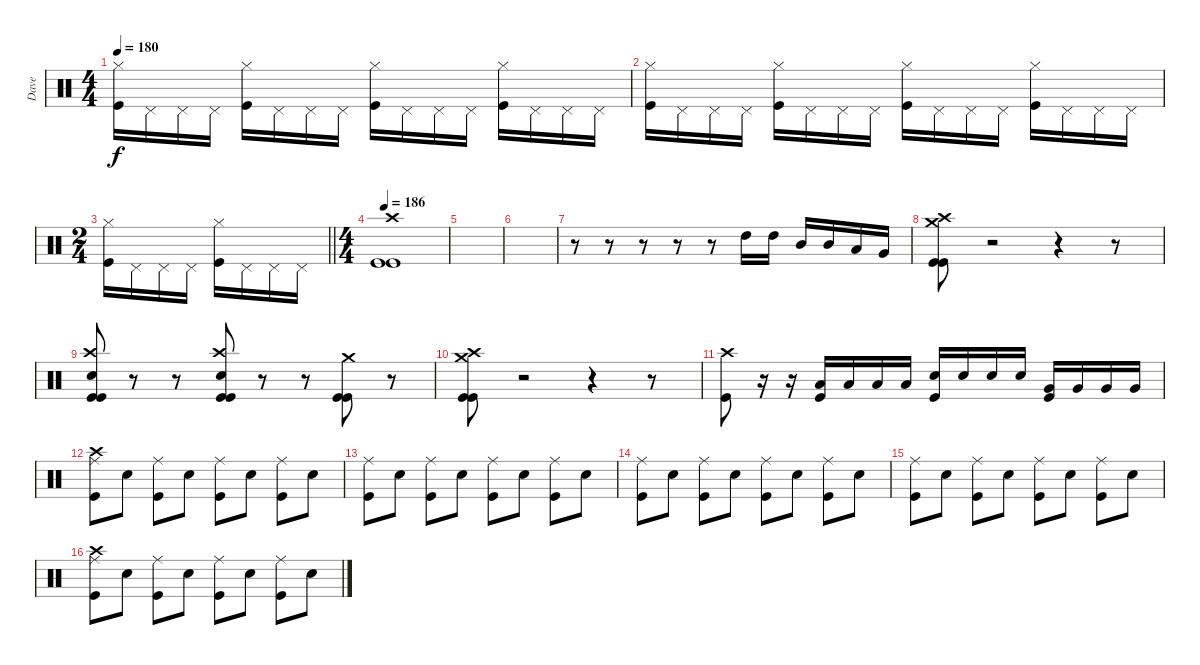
\track ("Dave" "Dave") {instrument percussion}
\staff {score}
\articulation defaults
\ts (4 4)
\tempo 180
\clef neutral
\ks c
("Kick (hit)" "Hi-Hat (closed)").16{dy f} "Pedal Hi-Hat (hit)".16 "Pedal Hi-Hat (hit)".16 "Pedal Hi-Hat (hit)".16 ("Kick (hit)" "Hi-Hat (closed)").16 "Pedal Hi-Hat (hit)".16 "Pedal Hi-Hat (hit)".16 "Pedal Hi-Hat (hit)".16 ("Kick (hit)" "Hi-Hat (closed)").16 "Pedal Hi-Hat (hit)".16 "Pedal Hi-Hat (hit)".16 "Pedal Hi-Hat (hit)".16 ("Kick (hit)" "Hi-Hat (closed)").16 "Pedal Hi-Hat (hit)".16 "Pedal Hi-Hat (hit)".16 "Pedal Hi-Hat (hit)".16 |
("Kick (hit)" "Hi-Hat (closed)").16 "Pedal Hi-Hat (hit)".16 "Pedal Hi-Hat (hit)".16 "Pedal Hi-Hat (hit)".16 ("Kick (hit)" "Hi-Hat (closed)").16 "Pedal Hi-Hat (hit)".16 "Pedal Hi-Hat (hit)".16 "Pedal Hi-Hat (hit)".16 ("Kick (hit)" "Hi-Hat (closed)").16 "Pedal Hi-Hat (hit)".16 "Pedal Hi-Hat (hit)".16 "Pedal Hi-Hat (hit)".16 ("Kick (hit)" "Hi-Hat (closed)").16 "Pedal Hi-Hat (hit)".16 "Pedal Hi-Hat (hit)".16 "Pedal Hi-Hat (hit)".16 |
\ts (2 4)
\barLineRight lightlight
("Kick (hit)" "Hi-Hat (closed)").16 "Pedal Hi-Hat (hit)".16 "Pedal Hi-Hat (hit)".16 "Pedal Hi-Hat (hit)".16 ("Kick (hit)" "Hi-Hat (closed)").16 "Pedal Hi-Hat (hit)".16 "Pedal Hi-Hat (hit)".16 "Pedal Hi-Hat (hit)".16 |
\ts (4 4)
\tempo 186
("Crash high (hit)" "Kick (hit)" "Kick (hit)").1 |
|
|
r.8 r.8 r.8 r.8 r.8 "High Tom (hit)".16 "High Tom (hit)".16 "Mid Tom (hit)".16 "Mid Tom (hit)".16 "Low Tom (hit)".16 "Very Low Tom (hit)".16 |
("Crash high (hit)" "Crash medium (hit)" "Kick (hit)" "Kick (hit)").8 r.2 r.4 r.8 |
("Crash high (hit)" "Snare (hit) 2" "Kick (hit)" "Kick (hit)").8 r.8 r.8 ("Crash high (hit)" "Snare (hit) 2" "Kick (hit)" "Kick (hit)").8 r.8 r.8 ("Crash medium (hit)" "Kick (hit)" "Kick (hit)").8 r.8 |
("Crash high (hit)" "Crash medium (hit)" "Kick (hit)" "Kick (hit)").8 r.2 r.4 r.8 |
("Crash high (hit)" "Kick (hit)").8 r.16 r.16 ("Kick (hit)" "Low Tom (hit)").16 "Low Tom (hit)".16 "Low Tom (hit)".16 "Low Tom (hit)".16 ("Kick (hit)" "Snare (hit) 2").16 "Snare (hit) 2".16 "Snare (hit) 2".16 "Snare (hit) 2".16 ("Kick (hit)" "Very Low Tom (hit)").16 "Very Low Tom (hit)".16 "Very Low Tom (hit)".16 "Very Low Tom (hit)".16 |
("Crash high (hit)" "Ride (middle)" "Kick (hit)").8 "Snare (hit) 2".8 ("Ride (middle)" "Kick (hit)").8 "Snare (hit) 2".8 ("Ride (middle)" "Kick (hit)").8 "Snare (hit) 2".8 ("Ride (middle)" "Kick (hit)").8 "Snare (hit) 2".8 |
("Ride (middle)" "Kick (hit)").8 "Snare (hit) 2".8 ("Ride (middle)" "Kick (hit)").8 "Snare (hit) 2".8 ("Ride (middle)" "Kick (hit)").8 "Snare (hit) 2".8 ("Ride (middle)" "Kick (hit)").8 "Snare (hit) 2".8 |
("Ride (middle)" "Kick (hit)").8 "Snare (hit) 2".8 ("Ride (middle)" "Kick (hit)").8 "Snare (hit) 2".8 ("Ride (middle)" "Kick (hit)").8 "Snare (hit) 2".8 ("Ride (middle)" "Kick (hit)").8 "Snare (hit) 2".8 |
("Ride (middle)" "Kick (hit)").8 "Snare (hit) 2".8 ("Ride (middle)" "Kick (hit)").8 "Snare (hit) 2".8 ("Ride (middle)" "Kick (hit)").8 "Snare (hit) 2".8 ("Ride (middle)" "Kick (hit)").8 "Snare (hit) 2".8 |
("Crash high (hit)" "Ride (middle)" "Kick (hit)").8 "Snare (hit) 2".8 ("Ride (middle)" "Kick (hit)").8 "Snare (hit) 2".8 ("Ride (middle)" "Kick (hit)").8 "Snare (hit) 2".8 ("Ride (middle)" "Kick (hit)").8 "Snare (hit) 2".8
